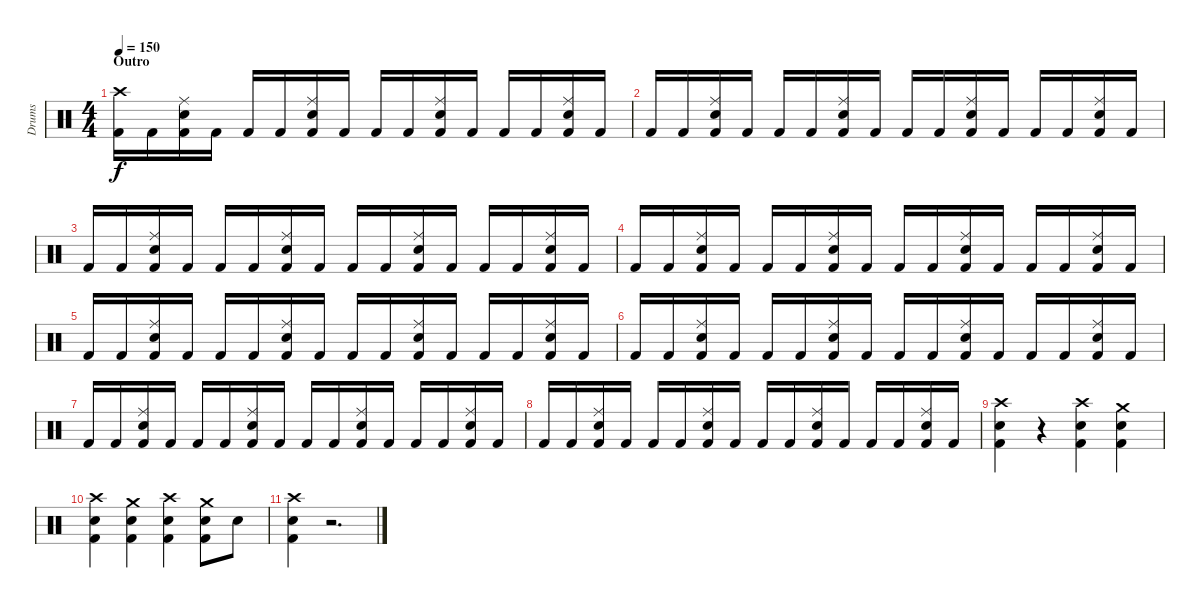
\track ("Drums" "Drums") {instrument percussion}
\staff {score}
\articulation defaults
\ts (4 4)
\section ("" "Outro")
\tempo 150
\clef neutral
\ks c
("Crash high (hit)" "Kick (hit) 2").16{dy f} "Kick (hit) 2".16 ("Ride (middle)" "Snare (hit) 2" "Kick (hit) 2").16 "Kick (hit) 2".16 "Kick (hit) 2".16 "Kick (hit) 2".16 ("Ride (middle)" "Snare (hit) 2" "Kick (hit) 2").16 "Kick (hit) 2".16 "Kick (hit) 2".16 "Kick (hit) 2".16 ("Ride (middle)" "Snare (hit) 2" "Kick (hit) 2").16 "Kick (hit) 2".16 "Kick (hit) 2".16 "Kick (hit) 2".16 ("Ride (middle)" "Snare (hit) 2" "Kick (hit) 2").16 "Kick (hit) 2".16 |
"Kick (hit) 2".16 "Kick (hit) 2".16 ("Ride (middle)" "Snare (hit) 2" "Kick (hit) 2").16 "Kick (hit) 2".16 "Kick (hit) 2".16 "Kick (hit) 2".16 ("Ride (middle)" "Snare (hit) 2" "Kick (hit) 2").16 "Kick (hit) 2".16 "Kick (hit) 2".16 "Kick (hit) 2".16 ("Ride (middle)" "Snare (hit) 2" "Kick (hit) 2").16 "Kick (hit) 2".16 "Kick (hit) 2".16 "Kick (hit) 2".16 ("Ride (middle)" "Snare (hit) 2" "Kick (hit) 2").16 "Kick (hit) 2".16 |
"Kick (hit) 2".16 "Kick (hit) 2".16 ("Ride (middle)" "Snare (hit) 2" "Kick (hit) 2").16 "Kick (hit) 2".16 "Kick (hit) 2".16 "Kick (hit) 2".16 ("Ride (middle)" "Snare (hit) 2" "Kick (hit) 2").16 "Kick (hit) 2".16 "Kick (hit) 2".16 "Kick (hit) 2".16 ("Ride (middle)" "Snare (hit) 2" "Kick (hit) 2").16 "Kick (hit) 2".16 "Kick (hit) 2".16 "Kick (hit) 2".16 ("Ride (middle)" "Snare (hit) 2" "Kick (hit) 2").16 "Kick (hit) 2".16 |
"Kick (hit) 2".16 "Kick (hit) 2".16 ("Ride (middle)" "Snare (hit) 2" "Kick (hit) 2").16 "Kick (hit) 2".16 "Kick (hit) 2".16 "Kick (hit) 2".16 ("Ride (middle)" "Snare (hit) 2" "Kick (hit) 2").16 "Kick (hit) 2".16 "Kick (hit) 2".16 "Kick (hit) 2".16 ("Ride (middle)" "Snare (hit) 2" "Kick (hit) 2").16 "Kick (hit) 2".16 "Kick (hit) 2".16 "Kick (hit) 2".16 ("Ride (middle)" "Snare (hit) 2" "Kick (hit) 2").16 "Kick (hit) 2".16 |
"Kick (hit) 2".16 "Kick (hit) 2".16 ("Ride (middle)" "Snare (hit) 2" "Kick (hit) 2").16 "Kick (hit) 2".16 "Kick (hit) 2".16 "Kick (hit) 2".16 ("Ride (middle)" "Snare (hit) 2" "Kick (hit) 2").16 "Kick (hit) 2".16 "Kick (hit) 2".16 "Kick (hit) 2".16 ("Ride (middle)" "Snare (hit) 2" "Kick (hit) 2").16 "Kick (hit) 2".16 "Kick (hit) 2".16 "Kick (hit) 2".16 ("Ride (middle)" "Snare (hit) 2" "Kick (hit) 2").16 "Kick (hit) 2".16 |
"Kick (hit) 2".16 "Kick (hit) 2".16 ("Ride (middle)" "Snare (hit) 2" "Kick (hit) 2").16 "Kick (hit) 2".16 "Kick (hit) 2".16 "Kick (hit) 2".16 ("Ride (middle)" "Snare (hit) 2" "Kick (hit) 2").16 "Kick (hit) 2".16 "Kick (hit) 2".16 "Kick (hit) 2".16 ("Ride (middle)" "Snare (hit) 2" "Kick (hit) 2").16 "Kick (hit) 2".16 "Kick (hit) 2".16 "Kick (hit) 2".16 ("Ride (middle)" "Snare (hit) 2" "Kick (hit) 2").16 "Kick (hit) 2".16 |
"Kick (hit) 2".16 "Kick (hit) 2".16 ("Ride (middle)" "Snare (hit) 2" "Kick (hit) 2").16 "Kick (hit) 2".16 "Kick (hit) 2".16 "Kick (hit) 2".16 ("Ride (middle)" "Snare (hit) 2" "Kick (hit) 2").16 "Kick (hit) 2".16 "Kick (hit) 2".16 "Kick (hit) 2".16 ("Ride (middle)" "Snare (hit) 2" "Kick (hit) 2").16 "Kick (hit) 2".16 "Kick (hit) 2".16 "Kick (hit) 2".16 ("Ride (middle)" "Snare (hit) 2" "Kick (hit) 2").16 "Kick (hit) 2".16 |
"Kick (hit) 2".16 "Kick (hit) 2".16 ("Ride (middle)" "Snare (hit) 2" "Kick (hit) 2").16 "Kick (hit) 2".16 "Kick (hit) 2".16 "Kick (hit) 2".16 ("Ride (middle)" "Snare (hit) 2" "Kick (hit) 2").16 "Kick (hit) 2".16 "Kick (hit) 2".16 "Kick (hit) 2".16 ("Ride (middle)" "Snare (hit) 2" "Kick (hit) 2").16 "Kick (hit) 2".16 "Kick (hit) 2".16 "Kick (hit) 2".16 ("Ride (middle)" "Snare (hit) 2" "Kick (hit) 2").16 "Kick (hit) 2".16 |
("Crash high (hit)" "Snare (hit) 2" "Kick (hit) 2").4 r.4 ("Crash high (hit)" "Snare (hit) 2" "Kick (hit) 2").4 ("Crash medium (hit)" "Snare (hit) 2" "Kick (hit) 2").4 |
("Crash high (hit)" "Snare (hit) 2" "Kick (hit) 2").4 ("Crash medium (hit)" "Snare (hit) 2" "Kick (hit) 2").4 ("Crash high (hit)" "Snare (hit) 2" "Kick (hit) 2").4 ("Crash medium (hit)" "Snare (hit) 2" "Kick (hit) 2").8 "Snare (hit) 2".8 |
("Crash high (hit)" "Snare (hit) 2" "Kick (hit) 2").4 r.2{d}
